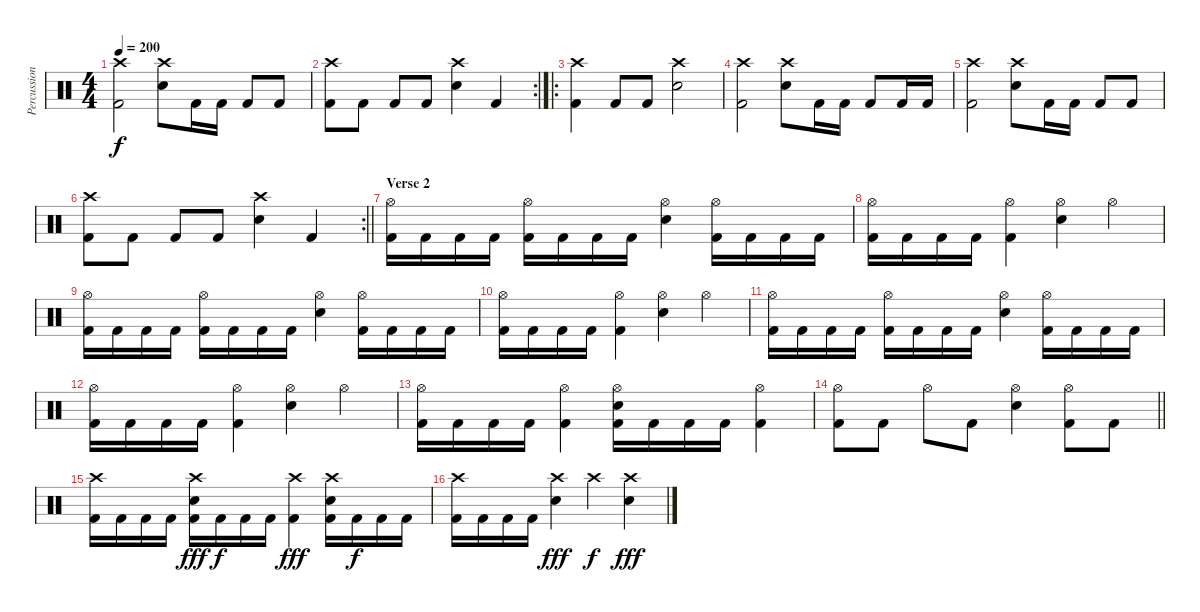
\track ("Percussion" "Percussion") {instrument percussion}
\staff {score}
\articulation defaults
\ts (4 4)
\tempo 200
\clef neutral
\ks c
("Crash high (hit)" "Kick (hit) 2").2{dy f} ("Crash high (hit)" "Electric Snare (hit)").8 "Kick (hit) 2".16 "Kick (hit) 2".16 "Kick (hit) 2".8 "Kick (hit) 2".8 |
\rc 2
("Crash high (hit)" "Kick (hit) 2").8 "Kick (hit) 2".8 "Kick (hit) 2".8 "Kick (hit) 2".8 ("Crash high (hit)" "Electric Snare (hit)").4 "Kick (hit) 2".4 |
\ro
("Crash high (hit)" "Kick (hit) 2").4 "Kick (hit) 2".8 "Kick (hit) 2".8 ("Crash high (hit)" "Electric Snare (hit)").2 |
("Crash high (hit)" "Kick (hit) 2").2 ("Crash high (hit)" "Electric Snare (hit)").8 "Kick (hit) 2".16 "Kick (hit) 2".16 "Kick (hit) 2".8 "Kick (hit) 2".16 "Kick (hit) 2".16 |
("Crash high (hit)" "Kick (hit) 2").2 ("Crash high (hit)" "Electric Snare (hit)").8 "Kick (hit) 2".16 "Kick (hit) 2".16 "Kick (hit) 2".8 "Kick (hit) 2".8 |
\rc 2
\barLineRight lightlight
("Crash high (hit)" "Kick (hit) 2").8 "Kick (hit) 2".8 "Kick (hit) 2".8 "Kick (hit) 2".8 ("Crash high (hit)" "Electric Snare (hit)").4 "Kick (hit) 2".4 |
\section ("" "Verse 2")
("Hi-Hat (open)" "Kick (hit) 2").16 "Kick (hit) 2".16 "Kick (hit) 2".16 "Kick (hit) 2".16 ("Hi-Hat (open)" "Kick (hit) 2").16 "Kick (hit) 2".16 "Kick (hit) 2".16 "Kick (hit) 2".16 ("Hi-Hat (open)" "Electric Snare (hit)").4 ("Hi-Hat (open)" "Kick (hit) 2").16 "Kick (hit) 2".16 "Kick (hit) 2".16 "Kick (hit) 2".16 |
("Hi-Hat (open)" "Kick (hit) 2").16 "Kick (hit) 2".16 "Kick (hit) 2".16 "Kick (hit) 2".16 ("Hi-Hat (open)" "Kick (hit) 2").4 ("Hi-Hat (open)" "Electric Snare (hit)").4 "Hi-Hat (open)".4 |
("Hi-Hat (open)" "Kick (hit) 2").16 "Kick (hit) 2".16 "Kick (hit) 2".16 "Kick (hit) 2".16 ("Hi-Hat (open)" "Kick (hit) 2").16 "Kick (hit) 2".16 "Kick (hit) 2".16 "Kick (hit) 2".16 ("Hi-Hat (open)" "Electric Snare (hit)").4 ("Hi-Hat (open)" "Kick (hit) 2").16 "Kick (hit) 2".16 "Kick (hit) 2".16 "Kick (hit) 2".16 |
("Hi-Hat (open)" "Kick (hit) 2").16 "Kick (hit) 2".16 "Kick (hit) 2".16 "Kick (hit) 2".16 ("Hi-Hat (open)" "Kick (hit) 2").4 ("Hi-Hat (open)" "Electric Snare (hit)").4 "Hi-Hat (open)".4 |
("Hi-Hat (open)" "Kick (hit) 2").16 "Kick (hit) 2".16 "Kick (hit) 2".16 "Kick (hit) 2".16 ("Hi-Hat (open)" "Kick (hit) 2").16 "Kick (hit) 2".16 "Kick (hit) 2".16 "Kick (hit) 2".16 ("Hi-Hat (open)" "Electric Snare (hit)").4 ("Hi-Hat (open)" "Kick (hit) 2").16 "Kick (hit) 2".16 "Kick (hit) 2".16 "Kick (hit) 2".16 |
("Hi-Hat (open)" "Kick (hit) 2").16 "Kick (hit) 2".16 "Kick (hit) 2".16 "Kick (hit) 2".16 ("Hi-Hat (open)" "Kick (hit) 2").4 ("Hi-Hat (open)" "Electric Snare (hit)").4 "Hi-Hat (open)".4 |
("Hi-Hat (open)" "Kick (hit) 2").16 "Kick (hit) 2".16 "Kick (hit) 2".16 "Kick (hit) 2".16 ("Hi-Hat (open)" "Kick (hit) 2").4 ("Hi-Hat (open)" "Electric Snare (hit)" "Kick (hit) 2").16 "Kick (hit) 2".16 "Kick (hit) 2".16 "Kick (hit) 2".16 ("Hi-Hat (open)" "Kick (hit) 2").4 |
\barLineRight lightlight
("Hi-Hat (open)" "Kick (hit) 2").8 "Kick (hit) 2".8 "Hi-Hat (open)".8 "Kick (hit) 2".8 ("Hi-Hat (open)" "Electric Snare (hit)").4 ("Hi-Hat (open)" "Kick (hit) 2").8 "Kick (hit) 2".8 |
("Crash high (hit)" "Kick (hit) 2").16 "Kick (hit) 2".16 "Kick (hit) 2".16 "Kick (hit) 2".16 ("Crash high (hit)" "Electric Snare (hit)" "Kick (hit) 2").16{dy fff} "Kick (hit) 2".16{dy f} "Kick (hit) 2".16 "Kick (hit) 2".16 ("Crash high (hit)" "Kick (hit) 2").4{dy fff} ("Crash high (hit)" "Electric Snare (hit)" "Kick (hit) 2").16 "Kick (hit) 2".16{dy f} "Kick (hit) 2".16 "Kick (hit) 2".16 |
("Crash high (hit)" "Kick (hit) 2").16 "Kick (hit) 2".16 "Kick (hit) 2".16 "Kick (hit) 2".16 ("Crash high (hit)" "Electric Snare (hit)").4{dy fff} "Crash high (hit)".4{dy f} ("Crash high (hit)" "Electric Snare (hit)").4{dy fff}
